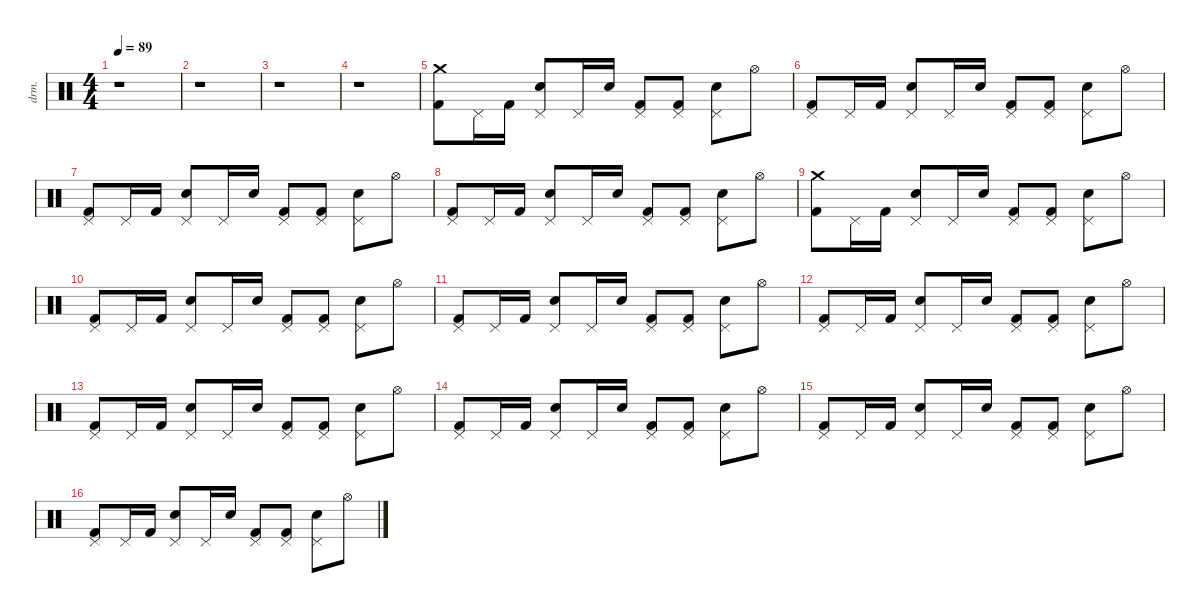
\defaultSystemsLayout 4
\hideDynamics
\bracketExtendMode nobrackets
\otherSystemsTrackNameOrientation horizontal
\track ("Drumkit" "drm.") {instrument percussion}
\staff {score}
\articulation defaults
\ts (4 4)
\beaming (8 2 2 2 2)
\tempo 89
\clef neutral
\ks c
r.1{dy f beam Down} |
r.1{beam Down} |
r.1{beam Down} |
r.1{beam Down} |
("Crash medium (hit)" "Kick (hit) 2").8{beam Down} "Pedal Hi-Hat (hit)".16{beam Down} "Kick (hit) 2".16{beam Down} ("Snare (hit) 2" "Pedal Hi-Hat (hit)").8{beam Up} "Pedal Hi-Hat (hit)".16{beam Up} "Snare (hit) 2".16{beam Up} ("Pedal Hi-Hat (hit)" "Kick (hit) 2").8{beam Up} ("Pedal Hi-Hat (hit)" "Kick (hit) 2").8{beam Up} ("Pedal Hi-Hat (hit)" "Snare (hit) 2").8{beam Down} "Hi-Hat (open)".8{beam Down} |
("Pedal Hi-Hat (hit)" "Kick (hit) 2").8{beam Up} "Pedal Hi-Hat (hit)".16{beam Up} "Kick (hit) 2".16{beam Up} ("Pedal Hi-Hat (hit)" "Snare (hit) 2").8{beam Up} "Pedal Hi-Hat (hit)".16{beam Up} "Snare (hit) 2".16{beam Up} ("Pedal Hi-Hat (hit)" "Kick (hit) 2").8{beam Up} ("Pedal Hi-Hat (hit)" "Kick (hit) 2").8{beam Up} ("Pedal Hi-Hat (hit)" "Snare (hit) 2").8{beam Down} "Hi-Hat (open)".8{beam Down} |
("Pedal Hi-Hat (hit)" "Kick (hit) 2").8{beam Up} "Pedal Hi-Hat (hit)".16{beam Up} "Kick (hit) 2".16{beam Up} ("Pedal Hi-Hat (hit)" "Snare (hit) 2").8{beam Up} "Pedal Hi-Hat (hit)".16{beam Up} "Snare (hit) 2".16{beam Up} ("Pedal Hi-Hat (hit)" "Kick (hit) 2").8{beam Up} ("Pedal Hi-Hat (hit)" "Kick (hit) 2").8{beam Up} ("Pedal Hi-Hat (hit)" "Snare (hit) 2").8{beam Down} "Hi-Hat (open)".8{beam Down} |
("Pedal Hi-Hat (hit)" "Kick (hit) 2").8{beam Up} "Pedal Hi-Hat (hit)".16{beam Up} "Kick (hit) 2".16{beam Up} ("Pedal Hi-Hat (hit)" "Snare (hit) 2").8{beam Up} "Pedal Hi-Hat (hit)".16{beam Up} "Snare (hit) 2".16{beam Up} ("Pedal Hi-Hat (hit)" "Kick (hit) 2").8{beam Up} ("Pedal Hi-Hat (hit)" "Kick (hit) 2").8{beam Up} ("Pedal Hi-Hat (hit)" "Snare (hit) 2").8{beam Down} "Hi-Hat (open)".8{beam Down} |
("Crash medium (hit)" "Kick (hit) 2").8{beam Down} "Pedal Hi-Hat (hit)".16{beam Down} "Kick (hit) 2".16{beam Down} ("Pedal Hi-Hat (hit)" "Snare (hit) 2").8{beam Up} "Pedal Hi-Hat (hit)".16{beam Up} "Snare (hit) 2".16{beam Up} ("Pedal Hi-Hat (hit)" "Kick (hit) 2").8{beam Up} ("Pedal Hi-Hat (hit)" "Kick (hit) 2").8{beam Up} ("Pedal Hi-Hat (hit)" "Snare (hit) 2").8{beam Down} "Hi-Hat (open)".8{beam Down} |
("Pedal Hi-Hat (hit)" "Kick (hit) 2").8{beam Up} "Pedal Hi-Hat (hit)".16{beam Up} "Kick (hit) 2".16{beam Up} ("Pedal Hi-Hat (hit)" "Snare (hit) 2").8{beam Up} "Pedal Hi-Hat (hit)".16{beam Up} "Snare (hit) 2".16{beam Up} ("Pedal Hi-Hat (hit)" "Kick (hit) 2").8{beam Up} ("Pedal Hi-Hat (hit)" "Kick (hit) 2").8{beam Up} ("Pedal Hi-Hat (hit)" "Snare (hit) 2").8{beam Down} "Hi-Hat (open)".8{beam Down} |
("Pedal Hi-Hat (hit)" "Kick (hit) 2").8{beam Up} "Pedal Hi-Hat (hit)".16{beam Up} "Kick (hit) 2".16{beam Up} ("Pedal Hi-Hat (hit)" "Snare (hit) 2").8{beam Up} "Pedal Hi-Hat (hit)".16{beam Up} "Snare (hit) 2".16{beam Up} ("Pedal Hi-Hat (hit)" "Kick (hit) 2").8{beam Up} ("Pedal Hi-Hat (hit)" "Kick (hit) 2").8{beam Up} ("Pedal Hi-Hat (hit)" "Snare (hit) 2").8{beam Down} "Hi-Hat (open)".8{beam Down} |
("Pedal Hi-Hat (hit)" "Kick (hit) 2").8{beam Up} "Pedal Hi-Hat (hit)".16{beam Up} "Kick (hit) 2".16{beam Up} ("Pedal Hi-Hat (hit)" "Snare (hit) 2").8{beam Up} "Pedal Hi-Hat (hit)".16{beam Up} "Snare (hit) 2".16{beam Up} ("Pedal Hi-Hat (hit)" "Kick (hit) 2").8{beam Up} ("Pedal Hi-Hat (hit)" "Kick (hit) 2").8{beam Up} ("Pedal Hi-Hat (hit)" "Snare (hit) 2").8{beam Down} "Hi-Hat (open)".8{beam Down} |
("Pedal Hi-Hat (hit)" "Kick (hit) 2").8{beam Up} "Pedal Hi-Hat (hit)".16{beam Up} "Kick (hit) 2".16{beam Up} ("Pedal Hi-Hat (hit)" "Snare (hit) 2").8{beam Up} "Pedal Hi-Hat (hit)".16{beam Up} "Snare (hit) 2".16{beam Up} ("Pedal Hi-Hat (hit)" "Kick (hit) 2").8{beam Up} ("Pedal Hi-Hat (hit)" "Kick (hit) 2").8{beam Up} ("Pedal Hi-Hat (hit)" "Snare (hit) 2").8{beam Down} "Hi-Hat (open)".8{beam Down} |
("Pedal Hi-Hat (hit)" "Kick (hit) 2").8{beam Up} "Pedal Hi-Hat (hit)".16{beam Up} "Kick (hit) 2".16{beam Up} ("Pedal Hi-Hat (hit)" "Snare (hit) 2").8{beam Up} "Pedal Hi-Hat (hit)".16{beam Up} "Snare (hit) 2".16{beam Up} ("Pedal Hi-Hat (hit)" "Kick (hit) 2").8{beam Up} ("Pedal Hi-Hat (hit)" "Kick (hit) 2").8{beam Up} ("Pedal Hi-Hat (hit)" "Snare (hit) 2").8{beam Down} "Hi-Hat (open)".8{beam Down} |
("Pedal Hi-Hat (hit)" "Kick (hit) 2").8{beam Up} "Pedal Hi-Hat (hit)".16{beam Up} "Kick (hit) 2".16{beam Up} ("Pedal Hi-Hat (hit)" "Snare (hit) 2").8{beam Up} "Pedal Hi-Hat (hit)".16{beam Up} "Snare (hit) 2".16{beam Up} ("Pedal Hi-Hat (hit)" "Kick (hit) 2").8{beam Up} ("Pedal Hi-Hat (hit)" "Kick (hit) 2").8{beam Up} ("Pedal Hi-Hat (hit)" "Snare (hit) 2").8{beam Down} "Hi-Hat (open)".8{beam Down} |
("Pedal Hi-Hat (hit)" "Kick (hit) 2").8{beam Up} "Pedal Hi-Hat (hit)".16{beam Up} "Kick (hit) 2".16{beam Up} ("Pedal Hi-Hat (hit)" "Snare (hit) 2").8{beam Up} "Pedal Hi-Hat (hit)".16{beam Up} "Snare (hit) 2".16{beam Up} ("Pedal Hi-Hat (hit)" "Kick (hit) 2").8{beam Up} ("Pedal Hi-Hat (hit)" "Kick (hit) 2").8{beam Up} ("Pedal Hi-Hat (hit)" "Snare (hit) 2").8{beam Down} "Hi-Hat (open)".8{beam Down}
